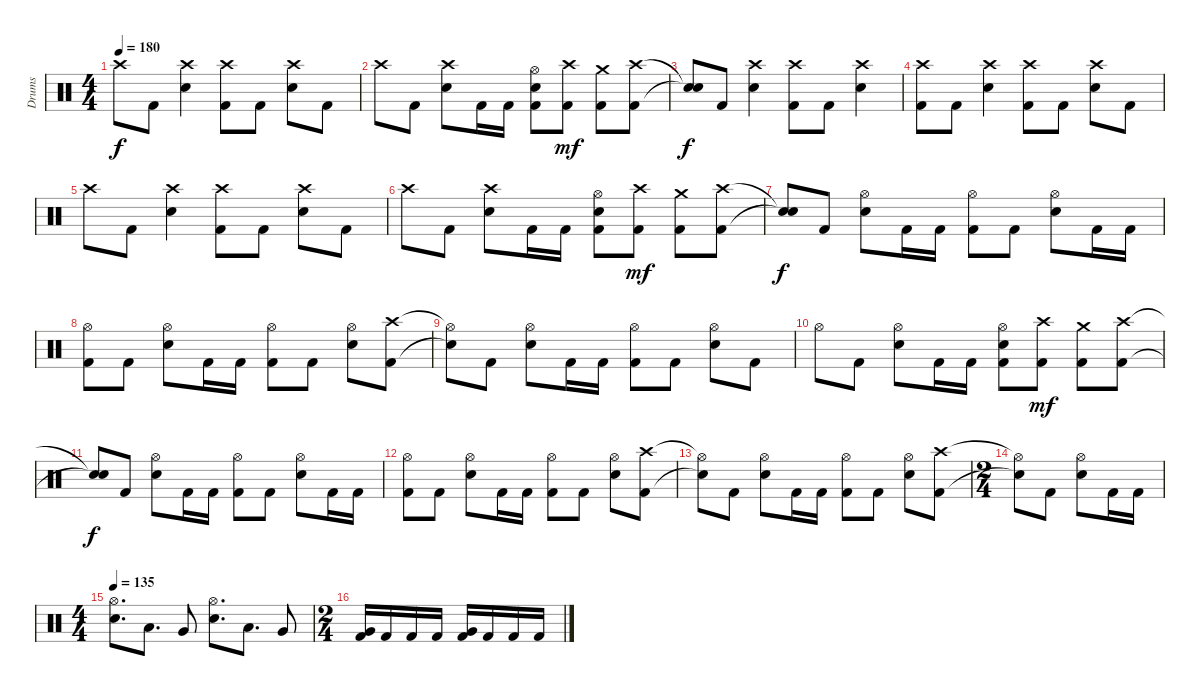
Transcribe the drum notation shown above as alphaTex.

\track ("Drums" "Drums") {instrument percussion}
\staff {score}
\articulation defaults
\ts (4 4)
\tempo 180
\clef neutral
\ks c "Crash high (hit)".8{dy f} "Kick (hit) 2".8
("Crash high (hit)" "Electric Snare (hit)").4 ("Crash high (hit)" "Kick (hit) 2").8 "Kick (hit) 2".8 ("Crash high (hit)" "Electric Snare (hit)").8 "Kick (hit) 2".8 |
"Crash high (hit)".8 "Kick (hit) 2".8 ("Crash high (hit)" "Electric Snare (hit)").8 "Kick (hit) 2".16 "Kick (hit) 2".16 ("Hi-Hat (open)" "Electric Snare (hit)" "Kick (hit) 2").8 ("Crash high (hit)" "Kick (hit) 2").8{dy mf} ("Crash medium (hit)" "Kick (hit) 2").8 ("Crash high (hit)" "Kick (hit) 2").8 |
("Snare (hit)"{t} "Snare (hit)"{t}).8{dy f} "Kick (hit) 2".8 ("Crash high (hit)" "Electric Snare (hit)").4 ("Crash high (hit)" "Kick (hit) 2").8 "Kick (hit) 2".8 ("Crash high (hit)" "Electric Snare (hit)").4 |
("Crash high (hit)" "Kick (hit) 2").8 "Kick (hit) 2".8 ("Crash high (hit)" "Electric Snare (hit)").4 ("Crash high (hit)" "Kick (hit) 2").8 "Kick (hit) 2".8 ("Crash high (hit)" "Electric Snare (hit)").8 "Kick (hit) 2".8 |
"Crash high (hit)".8 "Kick (hit) 2".8 ("Crash high (hit)" "Electric Snare (hit)").4 ("Crash high (hit)" "Kick (hit) 2").8 "Kick (hit) 2".8 ("Crash high (hit)" "Electric Snare (hit)").8 "Kick (hit) 2".8 |
"Crash high (hit)".8 "Kick (hit) 2".8 ("Crash high (hit)" "Electric Snare (hit)").8 "Kick (hit) 2".16 "Kick (hit) 2".16 ("Hi-Hat (open)" "Electric Snare (hit)" "Kick (hit) 2").8 ("Crash high (hit)" "Kick (hit) 2").8{dy mf} ("Crash medium (hit)" "Kick (hit) 2").8 ("Crash high (hit)" "Kick (hit) 2").8 |
("Snare (hit)"{t} "Snare (hit)"{t}).8{dy f} "Kick (hit) 2".8 ("Hi-Hat (open)" "Electric Snare (hit)").8 "Kick (hit) 2".16 "Kick (hit) 2".16 ("Hi-Hat (open)" "Kick (hit) 2").8 "Kick (hit) 2".8 ("Hi-Hat (open)" "Electric Snare (hit)").8 "Kick (hit) 2".16 "Kick (hit) 2".16 |
("Hi-Hat (open)" "Kick (hit) 2").8 "Kick (hit) 2".8 ("Hi-Hat (open)" "Electric Snare (hit)").8 "Kick (hit) 2".16 "Kick (hit) 2".16 ("Hi-Hat (open)" "Kick (hit) 2").8 "Kick (hit) 2".8 ("Hi-Hat (open)" "Electric Snare (hit)").8 ("Crash high (hit)" "Kick (hit) 2").8 |
("Hi-Hat (open)"{t} "Snare (hit)"{t}).8 "Kick (hit) 2".8 ("Hi-Hat (open)" "Electric Snare (hit)").8 "Kick (hit) 2".16 "Kick (hit) 2".16 ("Hi-Hat (open)" "Kick (hit) 2").8 "Kick (hit) 2".8 ("Hi-Hat (open)" "Electric Snare (hit)").8 "Kick (hit) 2".8 |
"Hi-Hat (open)".8 "Kick (hit) 2".8 ("Hi-Hat (open)" "Electric Snare (hit)").8 "Kick (hit) 2".16 "Kick (hit) 2".16 ("Hi-Hat (open)" "Electric Snare (hit)" "Kick (hit) 2").8 ("Crash high (hit)" "Kick (hit) 2").8{dy mf} ("Crash medium (hit)" "Kick (hit) 2").8 ("Crash high (hit)" "Kick (hit) 2").8 |
("Snare (hit)"{t} "Snare (hit)"{t}).8{dy f} "Kick (hit) 2".8 ("Hi-Hat (open)" "Electric Snare (hit)").8 "Kick (hit) 2".16 "Kick (hit) 2".16 ("Hi-Hat (open)" "Kick (hit) 2").8 "Kick (hit) 2".8 ("Hi-Hat (open)" "Electric Snare (hit)").8 "Kick (hit) 2".16 "Kick (hit) 2".16 |
("Hi-Hat (open)" "Kick (hit) 2").8 "Kick (hit) 2".8 ("Hi-Hat (open)" "Electric Snare (hit)").8 "Kick (hit) 2".16 "Kick (hit) 2".16 ("Hi-Hat (open)" "Kick (hit) 2").8 "Kick (hit) 2".8 ("Hi-Hat (open)" "Electric Snare (hit)").8 ("Crash high (hit)" "Kick (hit) 2").8 |
("Hi-Hat (open)"{t} "Snare (hit)"{t}).8 "Kick (hit) 2".8 ("Hi-Hat (open)" "Electric Snare (hit)").8 "Kick (hit) 2".16 "Kick (hit) 2".16 ("Hi-Hat (open)" "Kick (hit) 2").8 "Kick (hit) 2".8 ("Hi-Hat (open)" "Electric Snare (hit)").8 ("Crash high (hit)" "Kick (hit) 2").8 |
\ts (2 4)
("Hi-Hat (open)"{t} "Snare (hit)"{t}).8 "Kick (hit) 2".8 ("Hi-Hat (open)" "Electric Snare (hit)").8 "Kick (hit) 2".16 "Kick (hit) 2".16 |
\ts (4 4)
\tempo 135
("Hi-Hat (open)" "Electric Snare (hit)").8{d} "Low Tom (hit)".8{d} "Very Low Tom (hit)".8 ("Hi-Hat (open)" "Electric Snare (hit)").8{d} "Low Tom (hit)".8{d} "Very Low Tom (hit)".8 |
\ts (2 4)
("Very Low Tom (hit)" "Kick (hit) 2").16 "Kick (hit) 2".16 "Kick (hit) 2".16 "Kick (hit) 2".16 ("Very Low Tom (hit)" "Kick (hit) 2").16 "Kick (hit) 2".16 "Kick (hit) 2".16 "Kick (hit) 2".16
